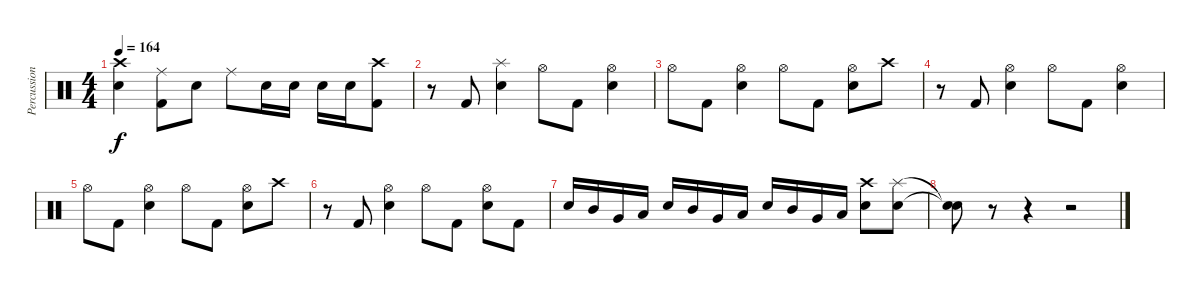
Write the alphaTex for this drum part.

\track ("Percussion" "Percussion") {instrument percussion}
\staff {score}
\articulation defaults
\ts (4 4)
\tempo 164
\clef neutral
\ks c
("Crash high (hit)" "Snare (hit) 2").4{dy f} ("Ride (middle)" "Kick (hit) 2").8 "Snare (hit) 2".8 "Ride (middle)".8 "Snare (hit) 2".16 "Snare (hit) 2".16 "Snare (hit) 2".16 "Snare (hit) 2".16 ("Crash high (hit)" "Kick (hit) 2").8 |
r.8 "Kick (hit) 2".8 ("Splash (hit)" "Snare (hit) 2").4 "Hi-Hat (open)".8 "Kick (hit) 2".8 ("Hi-Hat (open)" "Snare (hit) 2").4 |
"Hi-Hat (open)".8 "Kick (hit) 2".8 ("Hi-Hat (open)" "Snare (hit) 2").4 "Hi-Hat (open)".8 "Kick (hit) 2".8 ("Hi-Hat (open)" "Snare (hit) 2").8 "Crash high (hit)".8 |
r.8 "Kick (hit) 2".8 ("Hi-Hat (open)" "Snare (hit) 2").4 "Hi-Hat (open)".8 "Kick (hit) 2".8 ("Hi-Hat (open)" "Snare (hit) 2").4 |
"Hi-Hat (open)".8 "Kick (hit) 2".8 ("Hi-Hat (open)" "Snare (hit) 2").4 "Hi-Hat (open)".8 "Kick (hit) 2".8 ("Hi-Hat (open)" "Snare (hit) 2").8 "Crash high (hit)".8 |
r.8 "Kick (hit) 2".8 ("Hi-Hat (open)" "Snare (hit) 2").4 "Hi-Hat (open)".8 "Kick (hit) 2".8 ("Hi-Hat (open)" "Snare (hit) 2").8 "Kick (hit) 2".8 |
"Snare (hit) 2".16 "Mid Tom (hit)".16 "Very Low Tom (hit)".16 "Low Floor Tom (hit)".16 "Snare (hit) 2".16 "Mid Tom (hit)".16 "Very Low Tom (hit)".16 "Low Floor Tom (hit)".16 "Snare (hit) 2".16 "Mid Tom (hit)".16 "Very Low Tom (hit)".16 "Low Floor Tom (hit)".16 ("Crash high (hit)" "Snare (hit) 2").8 ("Splash (hit)" "Snare (hit) 2").8 |
("Snare (hit)"{t} "Snare (hit)"{t}).8 r.8 r.4 r.2
